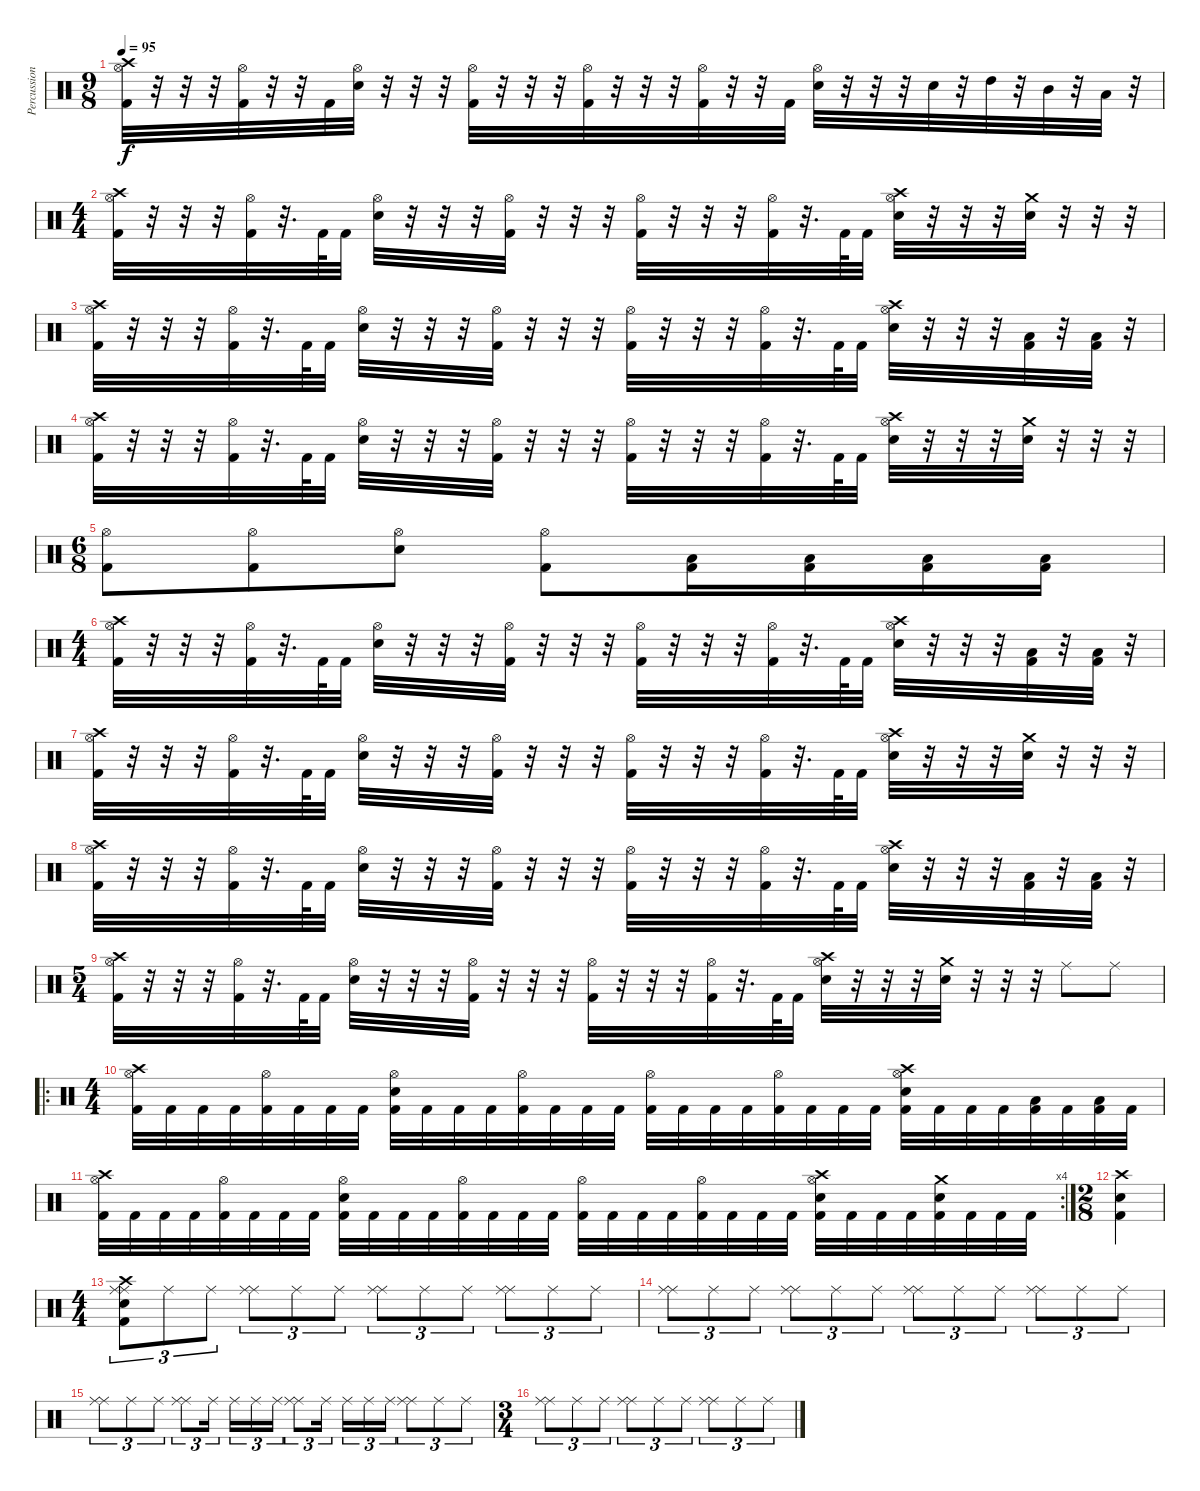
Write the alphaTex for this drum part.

\track ("Percussions" "Percussion") {instrument percussion}
\staff {score}
\articulation defaults
\ts (9 8)
\tempo 95
\clef neutral
\ks c
("Crash high (hit)" "Hi-Hat (open)" "Kick (hit) 2").32{dy f} r.32 r.32 r.32 ("Hi-Hat (open)" "Kick (hit) 2").32 r.32 r.32 "Kick (hit) 2".32 ("Hi-Hat (open)" "Electric Snare (hit)").32 r.32 r.32 r.32 ("Hi-Hat (open)" "Kick (hit) 2").32 r.32 r.32 r.32 ("Hi-Hat (open)" "Kick (hit) 2").32 r.32 r.32 r.32 ("Hi-Hat (open)" "Kick (hit) 2").32 r.32 r.32 "Kick (hit) 2".32 ("Hi-Hat (open)" "Electric Snare (hit)").32 r.32 r.32 r.32 "Electric Snare (hit)".32 r.32 "High Tom (hit)".32 r.32 "Mid Tom (hit)".32 r.32 "Low Tom (hit)".32 r.32 |
\ts (4 4)
("Crash high (hit)" "Hi-Hat (open)" "Kick (hit) 2").32 r.32 r.32 r.32 ("Hi-Hat (open)" "Kick (hit) 2").32 r.32{d} "Kick (hit) 2".64 "Kick (hit) 2".32 ("Hi-Hat (open)" "Electric Snare (hit)").32 r.32 r.32 r.32 ("Hi-Hat (open)" "Kick (hit) 2").32 r.32 r.32 r.32 ("Hi-Hat (open)" "Kick (hit) 2").32 r.32 r.32 r.32 ("Hi-Hat (open)" "Kick (hit) 2").32 r.32{d} "Kick (hit) 2".64 "Kick (hit) 2".32 ("Crash high (hit)" "Hi-Hat (open)" "Electric Snare (hit)").32 r.32 r.32 r.32 ("Crash medium (hit)" "Electric Snare (hit)").32 r.32 r.32 r.32 |
("Crash high (hit)" "Hi-Hat (open)" "Kick (hit) 2").32 r.32 r.32 r.32 ("Hi-Hat (open)" "Kick (hit) 2").32 r.32{d} "Kick (hit) 2".64 "Kick (hit) 2".32 ("Hi-Hat (open)" "Electric Snare (hit)").32 r.32 r.32 r.32 ("Hi-Hat (open)" "Kick (hit) 2").32 r.32 r.32 r.32 ("Hi-Hat (open)" "Kick (hit) 2").32 r.32 r.32 r.32 ("Hi-Hat (open)" "Kick (hit) 2").32 r.32{d} "Kick (hit) 2".64 "Kick (hit) 2".32 ("Crash high (hit)" "Hi-Hat (open)" "Electric Snare (hit)").32 r.32 r.32 r.32 ("Low Tom (hit)" "Kick (hit) 2").32 r.32 ("Low Tom (hit)" "Kick (hit) 2").32 r.32 |
("Crash high (hit)" "Hi-Hat (open)" "Kick (hit) 2").32 r.32 r.32 r.32 ("Hi-Hat (open)" "Kick (hit) 2").32 r.32{d} "Kick (hit) 2".64 "Kick (hit) 2".32 ("Hi-Hat (open)" "Electric Snare (hit)").32 r.32 r.32 r.32 ("Hi-Hat (open)" "Kick (hit) 2").32 r.32 r.32 r.32 ("Hi-Hat (open)" "Kick (hit) 2").32 r.32 r.32 r.32 ("Hi-Hat (open)" "Kick (hit) 2").32 r.32{d} "Kick (hit) 2".64 "Kick (hit) 2".32 ("Crash high (hit)" "Hi-Hat (open)" "Electric Snare (hit)").32 r.32 r.32 r.32 ("Crash medium (hit)" "Electric Snare (hit)").32 r.32 r.32 r.32 |
\ts (6 8)
("Hi-Hat (open)" "Kick (hit) 2").8 ("Hi-Hat (open)" "Kick (hit) 2").8 ("Hi-Hat (open)" "Electric Snare (hit)").8 ("Hi-Hat (open)" "Kick (hit) 2").8 ("Low Tom (hit)" "Kick (hit) 2").16 ("Low Tom (hit)" "Kick (hit) 2").16 ("Low Tom (hit)" "Kick (hit) 2").16 ("Low Tom (hit)" "Kick (hit) 2").16 |
\ts (4 4)
("Crash high (hit)" "Hi-Hat (open)" "Kick (hit) 2").32 r.32 r.32 r.32 ("Hi-Hat (open)" "Kick (hit) 2").32 r.32{d} "Kick (hit) 2".64 "Kick (hit) 2".32 ("Hi-Hat (open)" "Electric Snare (hit)").32 r.32 r.32 r.32 ("Hi-Hat (open)" "Kick (hit) 2").32 r.32 r.32 r.32 ("Hi-Hat (open)" "Kick (hit) 2").32 r.32 r.32 r.32 ("Hi-Hat (open)" "Kick (hit) 2").32 r.32{d} "Kick (hit) 2".64 "Kick (hit) 2".32 ("Crash high (hit)" "Hi-Hat (open)" "Electric Snare (hit)").32 r.32 r.32 r.32 ("Low Tom (hit)" "Kick (hit) 2").32 r.32 ("Low Tom (hit)" "Kick (hit) 2").32 r.32 |
("Crash high (hit)" "Hi-Hat (open)" "Kick (hit) 2").32 r.32 r.32 r.32 ("Hi-Hat (open)" "Kick (hit) 2").32 r.32{d} "Kick (hit) 2".64 "Kick (hit) 2".32 ("Hi-Hat (open)" "Electric Snare (hit)").32 r.32 r.32 r.32 ("Hi-Hat (open)" "Kick (hit) 2").32 r.32 r.32 r.32 ("Hi-Hat (open)" "Kick (hit) 2").32 r.32 r.32 r.32 ("Hi-Hat (open)" "Kick (hit) 2").32 r.32{d} "Kick (hit) 2".64 "Kick (hit) 2".32 ("Crash high (hit)" "Hi-Hat (open)" "Electric Snare (hit)").32 r.32 r.32 r.32 ("Crash medium (hit)" "Electric Snare (hit)").32 r.32 r.32 r.32 |
("Crash high (hit)" "Hi-Hat (open)" "Kick (hit) 2").32 r.32 r.32 r.32 ("Hi-Hat (open)" "Kick (hit) 2").32 r.32{d} "Kick (hit) 2".64 "Kick (hit) 2".32 ("Hi-Hat (open)" "Electric Snare (hit)").32 r.32 r.32 r.32 ("Hi-Hat (open)" "Kick (hit) 2").32 r.32 r.32 r.32 ("Hi-Hat (open)" "Kick (hit) 2").32 r.32 r.32 r.32 ("Hi-Hat (open)" "Kick (hit) 2").32 r.32{d} "Kick (hit) 2".64 "Kick (hit) 2".32 ("Crash high (hit)" "Hi-Hat (open)" "Electric Snare (hit)").32 r.32 r.32 r.32 ("Low Tom (hit)" "Kick (hit) 2").32 r.32 ("Low Tom (hit)" "Kick (hit) 2").32 r.32 |
\ts (5 4)
("Crash high (hit)" "Hi-Hat (open)" "Kick (hit) 2").32 r.32 r.32 r.32 ("Hi-Hat (open)" "Kick (hit) 2").32 r.32{d} "Kick (hit) 2".64 "Kick (hit) 2".32 ("Hi-Hat (open)" "Electric Snare (hit)").32 r.32 r.32 r.32 ("Hi-Hat (open)" "Kick (hit) 2").32 r.32 r.32 r.32 ("Hi-Hat (open)" "Kick (hit) 2").32 r.32 r.32 r.32 ("Hi-Hat (open)" "Kick (hit) 2").32 r.32{d} "Kick (hit) 2".64 "Kick (hit) 2".32 ("Crash high (hit)" "Hi-Hat (open)" "Electric Snare (hit)").32 r.32 r.32 r.32 ("Crash medium (hit)" "Electric Snare (hit)").32 r.32 r.32 r.32 "Ride (middle)".8 "Ride (middle)".8 |
\ro
\ts (4 4)
("Crash high (hit)" "Hi-Hat (open)" "Kick (hit) 2").32 "Kick (hit) 2".32 "Kick (hit) 2".32 "Kick (hit) 2".32 ("Hi-Hat (open)" "Kick (hit) 2").32 "Kick (hit) 2".32 "Kick (hit) 2".32 "Kick (hit) 2".32 ("Hi-Hat (open)" "Electric Snare (hit)" "Kick (hit) 2").32 "Kick (hit) 2".32 "Kick (hit) 2".32 "Kick (hit) 2".32 ("Hi-Hat (open)" "Kick (hit) 2").32 "Kick (hit) 2".32 "Kick (hit) 2".32 "Kick (hit) 2".32 ("Hi-Hat (open)" "Kick (hit) 2").32 "Kick (hit) 2".32 "Kick (hit) 2".32 "Kick (hit) 2".32 ("Hi-Hat (open)" "Kick (hit) 2").32 "Kick (hit) 2".32 "Kick (hit) 2".32 "Kick (hit) 2".32 ("Crash high (hit)" "Hi-Hat (open)" "Electric Snare (hit)" "Kick (hit) 2").32 "Kick (hit) 2".32 "Kick (hit) 2".32 "Kick (hit) 2".32 ("Low Tom (hit)" "Kick (hit) 2").32 "Kick (hit) 2".32 ("Low Tom (hit)" "Kick (hit) 2").32 "Kick (hit) 2".32 |
\rc 4
("Crash high (hit)" "Hi-Hat (open)" "Kick (hit) 2").32 "Kick (hit) 2".32 "Kick (hit) 2".32 "Kick (hit) 2".32 ("Hi-Hat (open)" "Kick (hit) 2").32 "Kick (hit) 2".32 "Kick (hit) 2".32 "Kick (hit) 2".32 ("Hi-Hat (open)" "Electric Snare (hit)" "Kick (hit) 2").32 "Kick (hit) 2".32 "Kick (hit) 2".32 "Kick (hit) 2".32 ("Hi-Hat (open)" "Kick (hit) 2").32 "Kick (hit) 2".32 "Kick (hit) 2".32 "Kick (hit) 2".32 ("Hi-Hat (open)" "Kick (hit) 2").32 "Kick (hit) 2".32 "Kick (hit) 2".32 "Kick (hit) 2".32 ("Hi-Hat (open)" "Kick (hit) 2").32 "Kick (hit) 2".32 "Kick (hit) 2".32 "Kick (hit) 2".32 ("Crash high (hit)" "Hi-Hat (open)" "Electric Snare (hit)" "Kick (hit) 2").32 "Kick (hit) 2".32 "Kick (hit) 2".32 "Kick (hit) 2".32 ("Crash medium (hit)" "Electric Snare (hit)" "Kick (hit) 2").32 "Kick (hit) 2".32 "Kick (hit) 2".32 "Kick (hit) 2".32 |
\ts (2 8)
("Crash high (hit)" "Electric Snare (hit)" "Kick (hit) 2").4 |
\ts (4 4)
("Crash high (hit)" "Ride (middle)" "Ride (middle)" "Electric Snare (hit)" "Kick (hit) 2").8{tu (3 2)} "Ride (middle)".8{tu (3 2)} "Ride (middle)".8{tu (3 2)} ("Ride (middle)" "Ride (middle)").8{tu (3 2)} "Ride (middle)".8{tu (3 2)} "Ride (middle)".8{tu (3 2)} ("Ride (middle)" "Ride (middle)").8{tu (3 2)} "Ride (middle)".8{tu (3 2)} "Ride (middle)".8{tu (3 2)} ("Ride (middle)" "Ride (middle)").8{tu (3 2)} "Ride (middle)".8{tu (3 2)} "Ride (middle)".8{tu (3 2)} |
("Ride (middle)" "Ride (middle)").8{tu (3 2)} "Ride (middle)".8{tu (3 2)} "Ride (middle)".8{tu (3 2)} ("Ride (middle)" "Ride (middle)").8{tu (3 2)} "Ride (middle)".8{tu (3 2)} "Ride (middle)".8{tu (3 2)} ("Ride (middle)" "Ride (middle)").8{tu (3 2)} "Ride (middle)".8{tu (3 2)} "Ride (middle)".8{tu (3 2)} ("Ride (middle)" "Ride (middle)").8{tu (3 2)} "Ride (middle)".8{tu (3 2)} "Ride (middle)".8{tu (3 2)} |
("Ride (middle)" "Ride (middle)").8{tu (3 2)} "Ride (middle)".8{tu (3 2)} "Ride (middle)".8{tu (3 2)} ("Ride (middle)" "Ride (middle)").8{tu (3 2)} "Ride (middle)".16{tu (3 2) beam splitsecondary} "Ride (middle)".16{tu (3 2)} "Ride (middle)".16{tu (3 2)} "Ride (middle)".16{tu (3 2)} ("Ride (middle)" "Ride (middle)").8{tu (3 2)} "Ride (middle)".16{tu (3 2) beam splitsecondary} "Ride (middle)".16{tu (3 2)} "Ride (middle)".16{tu (3 2)} "Ride (middle)".16{tu (3 2)} ("Ride (middle)" "Ride (middle)").8{tu (3 2)} "Ride (middle)".8{tu (3 2)} "Ride (middle)".8{tu (3 2)} |
\ts (3 4)
("Ride (middle)" "Ride (middle)").8{tu (3 2)} "Ride (middle)".8{tu (3 2)} "Ride (middle)".8{tu (3 2)} ("Ride (middle)" "Ride (middle)").8{tu (3 2)} "Ride (middle)".8{tu (3 2)} "Ride (middle)".8{tu (3 2)} ("Ride (middle)" "Ride (middle)").8{tu (3 2)} "Ride (middle)".8{tu (3 2)} "Ride (middle)".8{tu (3 2)}
